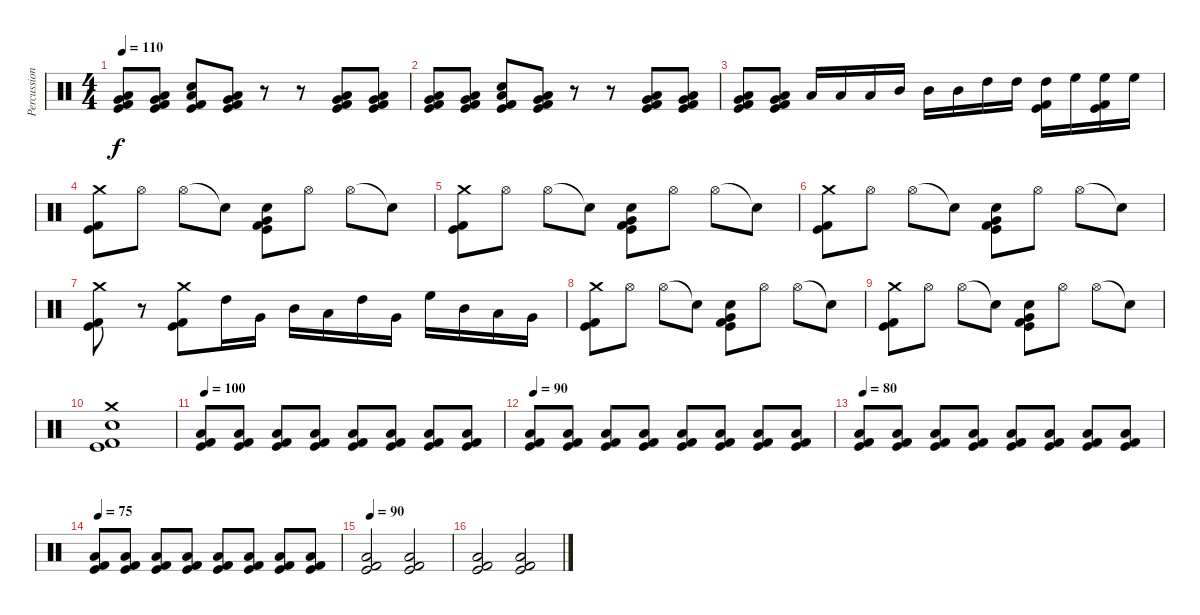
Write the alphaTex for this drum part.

\track ("Percussion" "Percussion") {instrument percussion}
\staff {score}
\articulation defaults
\ts (4 4)
\tempo 110
\clef neutral
\ks c
("Low Tom (hit)" "Very Low Tom (hit)" "Kick (hit) 2" "Kick (hit)").8{dy f} ("Low Tom (hit)" "Very Low Tom (hit)" "Kick (hit) 2" "Kick (hit)").8 ("Snare (hit) 2" "Low Tom (hit)" "Kick (hit) 2" "Kick (hit)").8 ("Low Tom (hit)" "Very Low Tom (hit)" "Kick (hit) 2" "Kick (hit)").8 r.8 r.8 ("Low Tom (hit)" "Very Low Tom (hit)" "Kick (hit) 2" "Kick (hit)").8 ("Low Tom (hit)" "Very Low Tom (hit)" "Kick (hit) 2" "Kick (hit)").8 |
("Low Tom (hit)" "Very Low Tom (hit)" "Kick (hit) 2" "Kick (hit)").8 ("Low Tom (hit)" "Very Low Tom (hit)" "Kick (hit) 2" "Kick (hit)").8 ("Snare (hit) 2" "Low Tom (hit)" "Kick (hit) 2" "Kick (hit)").8 ("Low Tom (hit)" "Very Low Tom (hit)" "Kick (hit) 2" "Kick (hit)").8 r.8 r.8 ("Low Tom (hit)" "Very Low Tom (hit)" "Kick (hit) 2" "Kick (hit)").8 ("Low Tom (hit)" "Very Low Tom (hit)" "Kick (hit) 2" "Kick (hit)").8 |
("Low Tom (hit)" "Very Low Tom (hit)" "Kick (hit) 2" "Kick (hit)").8 ("Low Tom (hit)" "Very Low Tom (hit)" "Kick (hit) 2" "Kick (hit)").8 "Low Tom (hit)".16 "Low Tom (hit)".16 "Low Tom (hit)".16 "Mid Tom (hit)".16 "Mid Tom (hit)".16 "Mid Tom (hit)".16 "High Tom (hit)".16 "High Tom (hit)".16 ("High Tom (hit)" "Kick (hit) 2" "Kick (hit)").16 "High Floor Tom (hit)".16 ("High Floor Tom (hit)" "Kick (hit) 2" "Kick (hit)").16 "High Floor Tom (hit)".16 |
("Crash medium (hit)" "Kick (hit) 2" "Kick (hit)").8 "Hi-Hat (open)".8 "Hi-Hat (open)".8 "Snare (hit)"{t}.8 ("Very Low Tom (hit)" "Snare (hit) 2" "Kick (hit) 2" "Kick (hit)").8 "Hi-Hat (open)".8 "Hi-Hat (open)".8 "Snare (hit)"{t}.8 |
("Crash medium (hit)" "Kick (hit) 2" "Kick (hit)").8 "Hi-Hat (open)".8 "Hi-Hat (open)".8 "Snare (hit)"{t}.8 ("Very Low Tom (hit)" "Snare (hit) 2" "Kick (hit) 2" "Kick (hit)").8 "Hi-Hat (open)".8 "Hi-Hat (open)".8 "Snare (hit)"{t}.8 |
("Crash medium (hit)" "Kick (hit) 2" "Kick (hit)").8 "Hi-Hat (open)".8 "Hi-Hat (open)".8 "Snare (hit)"{t}.8 ("Very Low Tom (hit)" "Snare (hit) 2" "Kick (hit) 2" "Kick (hit)").8 "Hi-Hat (open)".8 "Hi-Hat (open)".8 "Snare (hit)"{t}.8 |
("Crash medium (hit)" "Kick (hit) 2" "Kick (hit)").8 r.8 ("Crash medium (hit)" "Kick (hit) 2" "Kick (hit)").8 "High Tom (hit)".16 "Very Low Tom (hit)".16 "Mid Tom (hit)".16 "Low Tom (hit)".16 "High Tom (hit)".16 "Very Low Tom (hit)".16 "High Floor Tom (hit)".16 "Mid Tom (hit)".16 "Low Tom (hit)".16 "Very Low Tom (hit)".16 |
("Crash medium (hit)" "Kick (hit) 2" "Kick (hit)").8 "Hi-Hat (open)".8 "Hi-Hat (open)".8 "Snare (hit)"{t}.8 ("Very Low Tom (hit)" "Snare (hit) 2" "Kick (hit) 2" "Kick (hit)").8 "Hi-Hat (open)".8 "Hi-Hat (open)".8 "Snare (hit)"{t}.8 |
("Crash medium (hit)" "Kick (hit) 2" "Kick (hit)").8 "Hi-Hat (open)".8 "Hi-Hat (open)".8 "Snare (hit)"{t}.8 ("Very Low Tom (hit)" "Snare (hit) 2" "Kick (hit) 2" "Kick (hit)").8 "Hi-Hat (open)".8 "Hi-Hat (open)".8 "Snare (hit)"{t}.8 |
("Crash medium (hit)" "Snare (hit) 2" "Kick (hit) 2" "Kick (hit)").1 |
\tempo 100
("Low Floor Tom (hit)" "Kick (hit) 2" "Kick (hit)").8 ("Low Floor Tom (hit)" "Kick (hit) 2" "Kick (hit)").8 ("Low Floor Tom (hit)" "Kick (hit) 2" "Kick (hit)").8 ("Low Floor Tom (hit)" "Kick (hit) 2" "Kick (hit)").8 ("Low Floor Tom (hit)" "Kick (hit) 2" "Kick (hit)").8 ("Low Floor Tom (hit)" "Kick (hit) 2" "Kick (hit)").8 ("Low Floor Tom (hit)" "Kick (hit) 2" "Kick (hit)").8 ("Low Floor Tom (hit)" "Kick (hit) 2" "Kick (hit)").8 |
\tempo 90
("Low Floor Tom (hit)" "Kick (hit) 2" "Kick (hit)").8 ("Low Floor Tom (hit)" "Kick (hit) 2" "Kick (hit)").8 ("Low Floor Tom (hit)" "Kick (hit) 2" "Kick (hit)").8 ("Low Floor Tom (hit)" "Kick (hit) 2" "Kick (hit)").8 ("Low Floor Tom (hit)" "Kick (hit) 2" "Kick (hit)").8 ("Low Floor Tom (hit)" "Kick (hit) 2" "Kick (hit)").8 ("Low Floor Tom (hit)" "Kick (hit) 2" "Kick (hit)").8 ("Low Floor Tom (hit)" "Kick (hit) 2" "Kick (hit)").8 |
\tempo 80
("Low Floor Tom (hit)" "Kick (hit) 2" "Kick (hit)").8 ("Low Floor Tom (hit)" "Kick (hit) 2" "Kick (hit)").8 ("Low Floor Tom (hit)" "Kick (hit) 2" "Kick (hit)").8 ("Low Floor Tom (hit)" "Kick (hit) 2" "Kick (hit)").8 ("Low Floor Tom (hit)" "Kick (hit) 2" "Kick (hit)").8 ("Low Floor Tom (hit)" "Kick (hit) 2" "Kick (hit)").8 ("Low Floor Tom (hit)" "Kick (hit) 2" "Kick (hit)").8 ("Low Floor Tom (hit)" "Kick (hit) 2" "Kick (hit)").8 |
\tempo 75
("Low Floor Tom (hit)" "Kick (hit) 2" "Kick (hit)").8 ("Low Floor Tom (hit)" "Kick (hit) 2" "Kick (hit)").8 ("Low Floor Tom (hit)" "Kick (hit) 2" "Kick (hit)").8 ("Low Floor Tom (hit)" "Kick (hit) 2" "Kick (hit)").8 ("Low Floor Tom (hit)" "Kick (hit) 2" "Kick (hit)").8 ("Low Floor Tom (hit)" "Kick (hit) 2" "Kick (hit)").8 ("Low Floor Tom (hit)" "Kick (hit) 2" "Kick (hit)").8 ("Low Floor Tom (hit)" "Kick (hit) 2" "Kick (hit)").8 |
\tempo 90
("Low Floor Tom (hit)" "Kick (hit) 2" "Kick (hit)").2 ("Low Floor Tom (hit)" "Kick (hit) 2" "Kick (hit)").2 |
("Low Floor Tom (hit)" "Kick (hit) 2" "Kick (hit)").2 ("Low Floor Tom (hit)" "Kick (hit) 2" "Kick (hit)").2
